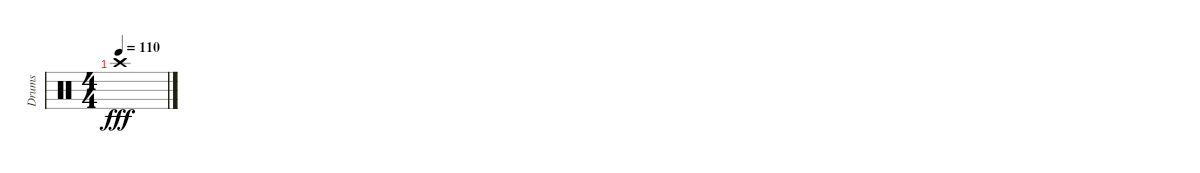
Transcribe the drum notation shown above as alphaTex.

\track ("Drums" "Drums") {instrument percussion}
\staff {score}
\articulation defaults
\ts (4 4)
\tempo 110
\clef neutral
\ks c "Crash high (hit)".1{dy fff}
